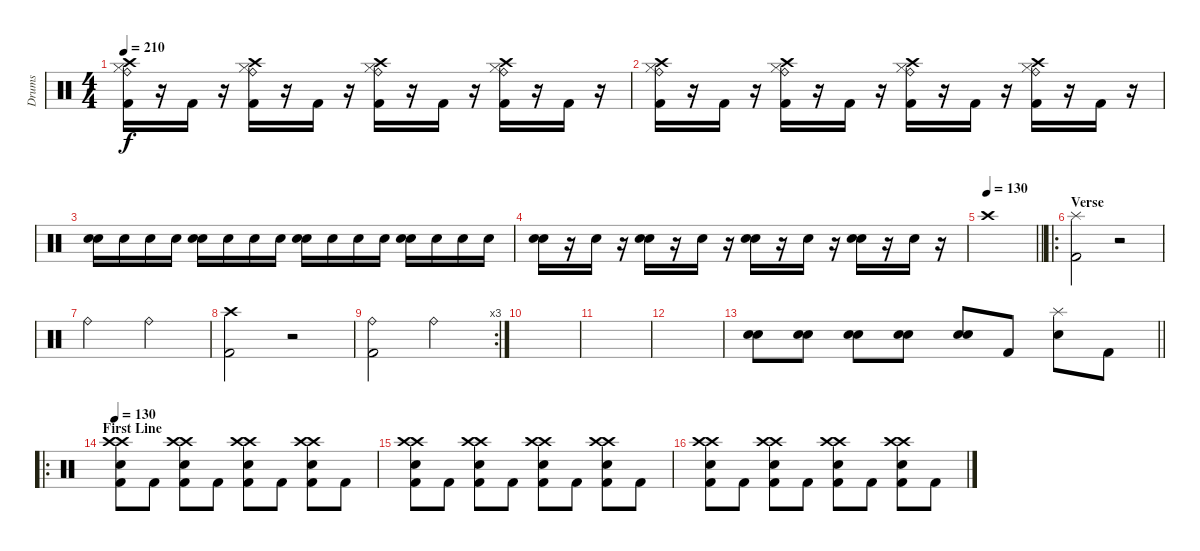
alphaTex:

\track ("Drums" "Drums") {instrument percussion}
\staff {score}
\articulation defaults
\ts (4 4)
\tempo 210
\clef neutral
\ks c
("Ride (bell)" "Hi-Hat (closed)" "Crash high (hit)" "Kick (hit) 2").16{dy f} r.16 "Kick (hit) 2".16 r.16 ("Ride (bell)" "Hi-Hat (closed)" "Crash high (hit)" "Kick (hit) 2").16 r.16 "Kick (hit) 2".16 r.16 ("Ride (bell)" "Hi-Hat (closed)" "Crash high (hit)" "Kick (hit) 2").16 r.16 "Kick (hit) 2".16 r.16 ("Ride (bell)" "Hi-Hat (closed)" "Crash high (hit)" "Kick (hit) 2").16 r.16 "Kick (hit) 2".16 r.16 |
("Ride (bell)" "Hi-Hat (closed)" "Crash high (hit)" "Kick (hit) 2").16 r.16 "Kick (hit) 2".16 r.16 ("Ride (bell)" "Hi-Hat (closed)" "Crash high (hit)" "Kick (hit) 2").16 r.16 "Kick (hit) 2".16 r.16 ("Ride (bell)" "Hi-Hat (closed)" "Crash high (hit)" "Kick (hit) 2").16 r.16 "Kick (hit) 2".16 r.16 ("Ride (bell)" "Hi-Hat (closed)" "Crash high (hit)" "Kick (hit) 2").16 r.16 "Kick (hit) 2".16 r.16 |
("Snare (hit) 2" "Electric Snare (hit)").16 "Electric Snare (hit)".16 "Electric Snare (hit)".16 "Electric Snare (hit)".16 ("Snare (hit) 2" "Electric Snare (hit)").16 "Electric Snare (hit)".16 "Electric Snare (hit)".16 "Electric Snare (hit)".16 ("Snare (hit) 2" "Electric Snare (hit)").16 "Electric Snare (hit)".16 "Electric Snare (hit)".16 "Electric Snare (hit)".16 ("Snare (hit) 2" "Electric Snare (hit)").16 "Electric Snare (hit)".16 "Electric Snare (hit)".16 "Electric Snare (hit)".16 |
("Snare (hit) 2" "Electric Snare (hit)").16 r.16 "Electric Snare (hit)".16 r.16 ("Snare (hit) 2" "Electric Snare (hit)").16 r.16 "Electric Snare (hit)".16 r.16 ("Snare (hit) 2" "Electric Snare (hit)").16 r.16 "Electric Snare (hit)".16 r.16 ("Snare (hit) 2" "Electric Snare (hit)").16 r.16 "Electric Snare (hit)".16 r.16 |
\tempo 130
\barLineRight lightlight "Crash high (hit)".1
|
\ro
\section ("" "Verse")
("Splash (hit)" "Kick (hit) 2").2 r.2 |
"Ride (bell)".2 "Ride (bell)".2 |
("Crash high (hit)" "Kick (hit) 2").2 r.2 |
\rc 3
("Ride (bell)" "Kick (hit) 2").2 "Ride (bell)".2 |
|
|
|
\barLineRight lightlight
("Snare (hit) 2" "Electric Snare (hit)").8 ("Snare (hit) 2" "Electric Snare (hit)").8 ("Snare (hit) 2" "Electric Snare (hit)").8 ("Snare (hit) 2" "Electric Snare (hit)").8 ("Snare (hit) 2" "Electric Snare (hit)").8 "Kick (hit) 2".8 ("Splash (hit)" "Electric Snare (hit)").8 "Kick (hit) 2".8 |
\ro
\section ("" "First Line")
\tempo 130
("Crash high (hit)" "Crash high (hit)" "Electric Snare (hit)" "Kick (hit) 2").8 "Kick (hit) 2".8 ("Crash high (hit)" "Crash high (hit)" "Electric Snare (hit)" "Kick (hit) 2").8 "Kick (hit) 2".8 ("Crash high (hit)" "Crash high (hit)" "Electric Snare (hit)" "Kick (hit) 2").8 "Kick (hit) 2".8 ("Crash high (hit)" "Crash high (hit)" "Electric Snare (hit)" "Kick (hit) 2").8 "Kick (hit) 2".8 |
("Crash high (hit)" "Crash high (hit)" "Electric Snare (hit)" "Kick (hit) 2").8 "Kick (hit) 2".8 ("Crash high (hit)" "Crash high (hit)" "Electric Snare (hit)" "Kick (hit) 2").8 "Kick (hit) 2".8 ("Crash high (hit)" "Crash high (hit)" "Electric Snare (hit)" "Kick (hit) 2").8 "Kick (hit) 2".8 ("Crash high (hit)" "Crash high (hit)" "Electric Snare (hit)" "Kick (hit) 2").8 "Kick (hit) 2".8 |
("Crash high (hit)" "Crash high (hit)" "Electric Snare (hit)" "Kick (hit) 2").8 "Kick (hit) 2".8 ("Crash high (hit)" "Crash high (hit)" "Electric Snare (hit)" "Kick (hit) 2").8 "Kick (hit) 2".8 ("Crash high (hit)" "Crash high (hit)" "Electric Snare (hit)" "Kick (hit) 2").8 "Kick (hit) 2".8 ("Crash high (hit)" "Crash high (hit)" "Electric Snare (hit)" "Kick (hit) 2").8 "Kick (hit) 2".8
